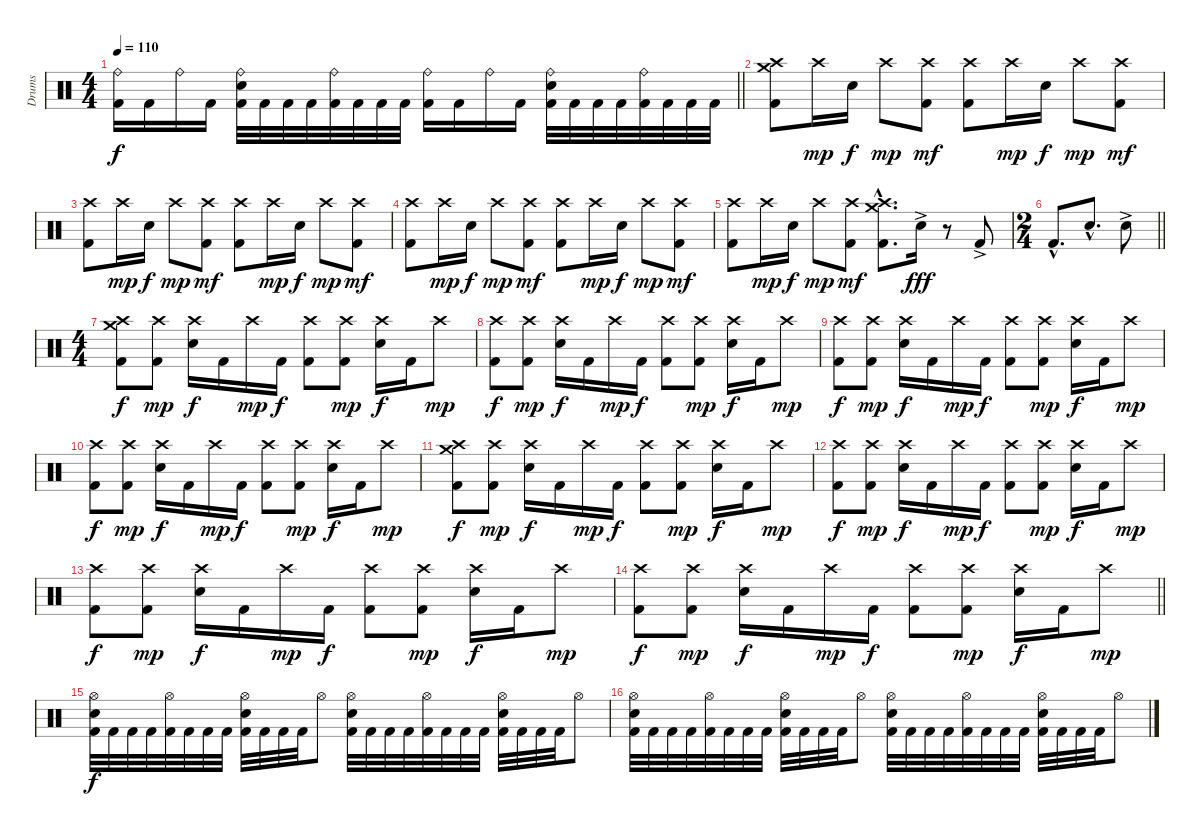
\track ("Drums" "Drums") {instrument percussion}
\staff {score}
\articulation defaults
\ts (4 4)
\tempo 110
\clef neutral
\barLineRight lightlight
\ks c
("Ride (bell)" "Kick (hit) 2").16{dy f} "Kick (hit) 2".16 "Ride (bell)".16 "Kick (hit) 2".16 ("Ride (bell)" "Snare (hit) 2" "Kick (hit) 2").32 "Kick (hit) 2".32 "Kick (hit) 2".32 "Kick (hit) 2".32 ("Ride (bell)" "Kick (hit) 2").32 "Kick (hit) 2".32 "Kick (hit) 2".32 "Kick (hit) 2".32 ("Ride (bell)" "Kick (hit) 2").16 "Kick (hit) 2".16 "Ride (bell)".16 "Kick (hit) 2".16 ("Ride (bell)" "Snare (hit) 2" "Kick (hit) 2").32 "Kick (hit) 2".32 "Kick (hit) 2".32 "Kick (hit) 2".32 ("Ride (bell)" "Kick (hit) 2").32 "Kick (hit) 2".32 "Kick (hit) 2".32 "Kick (hit) 2".32 |
("Crash medium (hit)" "Crash high (hit)" "Kick (hit) 2").8 "Crash high (hit)".16{dy mp} "Snare (hit) 2".16{dy f} "Crash high (hit)".8{dy mp} ("Crash high (hit)" "Kick (hit) 2").8{dy mf} ("Crash high (hit)" "Kick (hit) 2").8 "Crash high (hit)".16{dy mp} "Snare (hit) 2".16{dy f} "Crash high (hit)".8{dy mp} ("Crash high (hit)" "Kick (hit) 2").8{dy mf} |
("Crash high (hit)" "Kick (hit) 2").8 "Crash high (hit)".16{dy mp} "Snare (hit) 2".16{dy f} "Crash high (hit)".8{dy mp} ("Crash high (hit)" "Kick (hit) 2").8{dy mf} ("Crash high (hit)" "Kick (hit) 2").8 "Crash high (hit)".16{dy mp} "Snare (hit) 2".16{dy f} "Crash high (hit)".8{dy mp} ("Crash high (hit)" "Kick (hit) 2").8{dy mf} |
("Crash high (hit)" "Kick (hit) 2").8 "Crash high (hit)".16{dy mp} "Snare (hit) 2".16{dy f} "Crash high (hit)".8{dy mp} ("Crash high (hit)" "Kick (hit) 2").8{dy mf} ("Crash high (hit)" "Kick (hit) 2").8 "Crash high (hit)".16{dy mp} "Snare (hit) 2".16{dy f} "Crash high (hit)".8{dy mp} ("Crash high (hit)" "Kick (hit) 2").8{dy mf} |
("Crash high (hit)" "Kick (hit) 2").8 "Crash high (hit)".16{dy mp} "Snare (hit) 2".16{dy f} "Crash high (hit)".8{dy mp} ("Crash high (hit)" "Kick (hit) 2").8{dy mf} ("Crash high (hit)"{hac} "Crash medium (hit)"{hac} "Kick (hit) 2"{hac}).8{d} "Snare (hit) 2"{ac}.16{dy fff} r.8 "Kick (hit) 2"{ac}.8 |
\ts (2 4)
\barLineRight lightlight "Kick (hit) 2"{hac}.8{d} "Snare (hit) 2"{hac}.8{d} "Snare (hit) 2"{ac}.8
|
\ts (4 4)
("Crash high (hit)" "Crash medium (hit)" "Kick (hit) 2").8{dy f} ("Crash high (hit)" "Kick (hit) 2").8{dy mp} ("Crash high (hit)" "Snare (hit) 2").16{dy f} "Kick (hit) 2".16 "Crash high (hit)".16{dy mp} "Kick (hit) 2".16{dy f} ("Crash high (hit)" "Kick (hit) 2").8 ("Crash high (hit)" "Kick (hit) 2").8{dy mp} ("Crash high (hit)" "Snare (hit) 2").16{dy f} "Kick (hit) 2".16 "Crash high (hit)".8{dy mp} |
("Crash high (hit)" "Kick (hit) 2").8{dy f} ("Crash high (hit)" "Kick (hit) 2").8{dy mp} ("Crash high (hit)" "Snare (hit) 2").16{dy f} "Kick (hit) 2".16 "Crash high (hit)".16{dy mp} "Kick (hit) 2".16{dy f} ("Crash high (hit)" "Kick (hit) 2").8 ("Crash high (hit)" "Kick (hit) 2").8{dy mp} ("Crash high (hit)" "Snare (hit) 2").16{dy f} "Kick (hit) 2".16 "Crash high (hit)".8{dy mp} |
("Crash high (hit)" "Kick (hit) 2").8{dy f} ("Crash high (hit)" "Kick (hit) 2").8{dy mp} ("Crash high (hit)" "Snare (hit) 2").16{dy f} "Kick (hit) 2".16 "Crash high (hit)".16{dy mp} "Kick (hit) 2".16{dy f} ("Crash high (hit)" "Kick (hit) 2").8 ("Crash high (hit)" "Kick (hit) 2").8{dy mp} ("Crash high (hit)" "Snare (hit) 2").16{dy f} "Kick (hit) 2".16 "Crash high (hit)".8{dy mp} |
("Crash high (hit)" "Kick (hit) 2").8{dy f} ("Crash high (hit)" "Kick (hit) 2").8{dy mp} ("Crash high (hit)" "Snare (hit) 2").16{dy f} "Kick (hit) 2".16 "Crash high (hit)".16{dy mp} "Kick (hit) 2".16{dy f} ("Crash high (hit)" "Kick (hit) 2").8 ("Crash high (hit)" "Kick (hit) 2").8{dy mp} ("Crash high (hit)" "Snare (hit) 2").16{dy f} "Kick (hit) 2".16 "Crash high (hit)".8{dy mp} |
("Crash high (hit)" "Crash medium (hit)" "Kick (hit) 2").8{dy f} ("Crash high (hit)" "Kick (hit) 2").8{dy mp} ("Crash high (hit)" "Snare (hit) 2").16{dy f} "Kick (hit) 2".16 "Crash high (hit)".16{dy mp} "Kick (hit) 2".16{dy f} ("Crash high (hit)" "Kick (hit) 2").8 ("Crash high (hit)" "Kick (hit) 2").8{dy mp} ("Crash high (hit)" "Snare (hit) 2").16{dy f} "Kick (hit) 2".16 "Crash high (hit)".8{dy mp} |
("Crash high (hit)" "Kick (hit) 2").8{dy f} ("Crash high (hit)" "Kick (hit) 2").8{dy mp} ("Crash high (hit)" "Snare (hit) 2").16{dy f} "Kick (hit) 2".16 "Crash high (hit)".16{dy mp} "Kick (hit) 2".16{dy f} ("Crash high (hit)" "Kick (hit) 2").8 ("Crash high (hit)" "Kick (hit) 2").8{dy mp} ("Crash high (hit)" "Snare (hit) 2").16{dy f} "Kick (hit) 2".16 "Crash high (hit)".8{dy mp} |
("Crash high (hit)" "Kick (hit) 2").8{dy f} ("Crash high (hit)" "Kick (hit) 2").8{dy mp} ("Crash high (hit)" "Snare (hit) 2").16{dy f} "Kick (hit) 2".16 "Crash high (hit)".16{dy mp} "Kick (hit) 2".16{dy f} ("Crash high (hit)" "Kick (hit) 2").8 ("Crash high (hit)" "Kick (hit) 2").8{dy mp} ("Crash high (hit)" "Snare (hit) 2").16{dy f} "Kick (hit) 2".16 "Crash high (hit)".8{dy mp} |
\barLineRight lightlight
("Crash high (hit)" "Kick (hit) 2").8{dy f} ("Crash high (hit)" "Kick (hit) 2").8{dy mp} ("Crash high (hit)" "Snare (hit) 2").16{dy f} "Kick (hit) 2".16 "Crash high (hit)".16{dy mp} "Kick (hit) 2".16{dy f} ("Crash high (hit)" "Kick (hit) 2").8 ("Crash high (hit)" "Kick (hit) 2").8{dy mp} ("Crash high (hit)" "Snare (hit) 2").16{dy f} "Kick (hit) 2".16 "Crash high (hit)".8{dy mp} |
("Hi-Hat (open)" "Snare (hit) 2" "Kick (hit) 2").32{dy f} "Kick (hit) 2".32 "Kick (hit) 2".32 "Kick (hit) 2".32 ("Hi-Hat (open)" "Kick (hit) 2").32 "Kick (hit) 2".32 "Kick (hit) 2".32 "Kick (hit) 2".32 ("Hi-Hat (open)" "Snare (hit) 2" "Kick (hit) 2").32 "Kick (hit) 2".32 "Kick (hit) 2".32 "Kick (hit) 2".32 "Hi-Hat (open)".8 ("Hi-Hat (open)" "Snare (hit) 2" "Kick (hit) 2").32 "Kick (hit) 2".32 "Kick (hit) 2".32 "Kick (hit) 2".32 ("Hi-Hat (open)" "Kick (hit) 2").32 "Kick (hit) 2".32 "Kick (hit) 2".32 "Kick (hit) 2".32 ("Hi-Hat (open)" "Snare (hit) 2" "Kick (hit) 2").32 "Kick (hit) 2".32 "Kick (hit) 2".32 "Kick (hit) 2".32 "Hi-Hat (open)".8 |
("Hi-Hat (open)" "Snare (hit) 2" "Kick (hit) 2").32 "Kick (hit) 2".32 "Kick (hit) 2".32 "Kick (hit) 2".32 ("Hi-Hat (open)" "Kick (hit) 2").32 "Kick (hit) 2".32 "Kick (hit) 2".32 "Kick (hit) 2".32 ("Hi-Hat (open)" "Snare (hit) 2" "Kick (hit) 2").32 "Kick (hit) 2".32 "Kick (hit) 2".32 "Kick (hit) 2".32 "Hi-Hat (open)".8 ("Hi-Hat (open)" "Snare (hit) 2" "Kick (hit) 2").32 "Kick (hit) 2".32 "Kick (hit) 2".32 "Kick (hit) 2".32 ("Hi-Hat (open)" "Kick (hit) 2").32 "Kick (hit) 2".32 "Kick (hit) 2".32 "Kick (hit) 2".32 ("Hi-Hat (open)" "Snare (hit) 2" "Kick (hit) 2").32 "Kick (hit) 2".32 "Kick (hit) 2".32 "Kick (hit) 2".32 "Hi-Hat (open)".8
